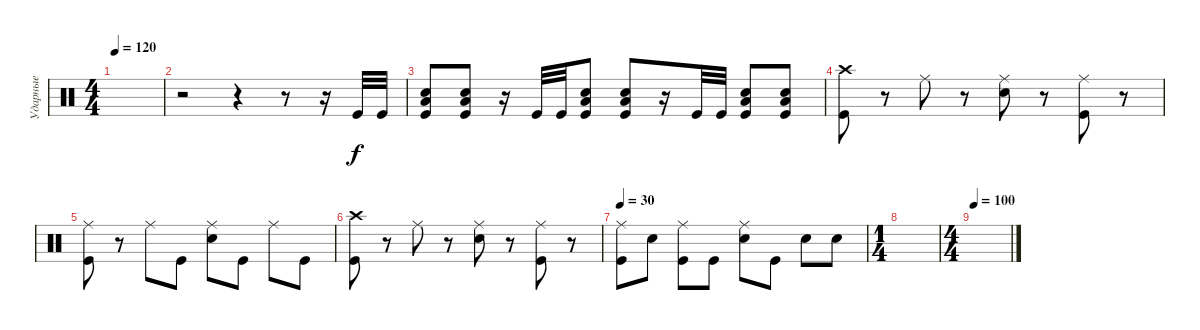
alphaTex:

\track ("Ударные" "Ударные") {instrument percussion}
\staff {score}
\articulation defaults
\ts (4 4)
\tempo 120
\clef neutral
\ks c
|
r.2 r.4 r.8 r.16 "Kick (hit)".32 "Kick (hit)".32 |
("Low Tom (hit)" "Snare (hit) 2" "Kick (hit)").8 ("Low Tom (hit)" "Snare (hit) 2" "Kick (hit)").8 r.16 "Kick (hit)".32 "Kick (hit)".32 ("Low Tom (hit)" "Snare (hit) 2" "Kick (hit)").8 ("Low Tom (hit)" "Snare (hit) 2" "Kick (hit)").8 r.16 "Kick (hit)".32 "Kick (hit)".32 ("Low Tom (hit)" "Snare (hit) 2" "Kick (hit)").8 ("Low Tom (hit)" "Snare (hit) 2" "Kick (hit)").8 |
("Crash high (hit)" "Kick (hit)").8 r.8 "Ride (middle)".8 r.8 ("Ride (middle)" "Snare (hit) 2").8 r.8 ("Ride (middle)" "Kick (hit)").8 r.8 |
("Ride (middle)" "Kick (hit)").8 r.8 "Ride (middle)".8 "Kick (hit)".8 ("Ride (middle)" "Snare (hit) 2").8 "Kick (hit)".8 "Ride (middle)".8 "Kick (hit)".8 |
("Crash high (hit)" "Kick (hit)").8 r.8 "Ride (middle)".8 r.8 ("Ride (middle)" "Snare (hit) 2").8 r.8 ("Ride (middle)" "Kick (hit)").8 r.8 |
\tempo 30
("Ride (middle)" "Kick (hit)").8 "Snare (hit) 2".8 ("Ride (middle)" "Kick (hit)").8 "Kick (hit)".8 ("Ride (middle)" "Snare (hit) 2").8 "Kick (hit)".8 "Snare (hit) 2".8 "Snare (hit) 2".8 |
\ts (1 4)
|
\ts (4 4)
\tempo 100
